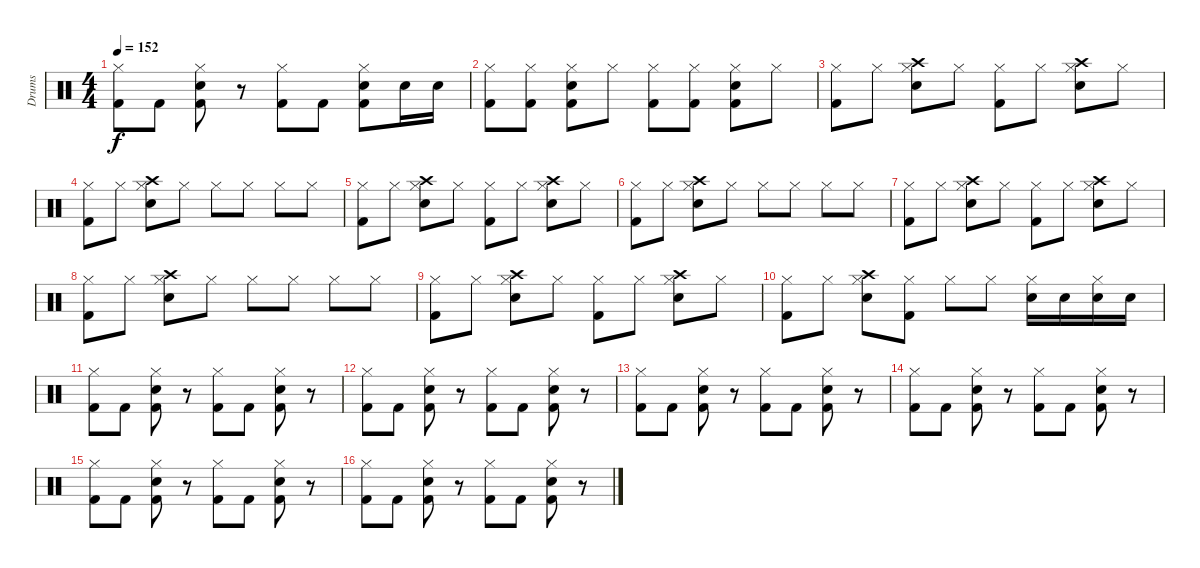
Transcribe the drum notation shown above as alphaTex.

\track ("Drums" "Drums") {instrument percussion}
\staff {score}
\articulation defaults
\ts (4 4)
\tempo 152
\clef neutral
\ks c
("Hi-Hat (closed)" "Kick (hit) 2").8{dy f} "Kick (hit) 2".8 ("Hi-Hat (closed)" "Electric Snare (hit)" "Kick (hit) 2").8 r.8 ("Hi-Hat (closed)" "Kick (hit) 2").8 "Kick (hit) 2".8 ("Hi-Hat (closed)" "Electric Snare (hit)" "Kick (hit) 2").8 "Snare (hit) 2".16 "Snare (hit) 2".16 |
("Hi-Hat (closed)" "Kick (hit) 2").8 ("Hi-Hat (closed)" "Kick (hit) 2").8 ("Hi-Hat (closed)" "Electric Snare (hit)" "Kick (hit) 2").8 "Hi-Hat (closed)".8 ("Hi-Hat (closed)" "Kick (hit) 2").8 ("Hi-Hat (closed)" "Kick (hit) 2").8 ("Hi-Hat (closed)" "Electric Snare (hit)" "Kick (hit) 2").8 "Hi-Hat (closed)".8 |
("Hi-Hat (closed)" "Kick (hit) 2").8 "Hi-Hat (closed)".8 ("Hi-Hat (closed)" "Crash high (hit)" "Snare (hit) 2").8 "Hi-Hat (closed)".8 ("Hi-Hat (closed)" "Kick (hit) 2").8 "Hi-Hat (closed)".8 ("Hi-Hat (closed)" "Crash high (hit)" "Snare (hit) 2").8 "Hi-Hat (closed)".8 |
("Hi-Hat (closed)" "Kick (hit) 2").8 "Hi-Hat (closed)".8 ("Hi-Hat (closed)" "Crash high (hit)" "Snare (hit) 2").8 "Hi-Hat (closed)".8 "Hi-Hat (closed)".8 "Hi-Hat (closed)".8 "Hi-Hat (closed)".8 "Hi-Hat (closed)".8 |
("Hi-Hat (closed)" "Kick (hit) 2").8 "Hi-Hat (closed)".8 ("Hi-Hat (closed)" "Crash high (hit)" "Snare (hit) 2").8 "Hi-Hat (closed)".8 ("Hi-Hat (closed)" "Kick (hit) 2").8 "Hi-Hat (closed)".8 ("Hi-Hat (closed)" "Crash high (hit)" "Snare (hit) 2").8 "Hi-Hat (closed)".8 |
("Hi-Hat (closed)" "Kick (hit) 2").8 "Hi-Hat (closed)".8 ("Hi-Hat (closed)" "Crash high (hit)" "Snare (hit) 2").8 "Hi-Hat (closed)".8 "Hi-Hat (closed)".8 "Hi-Hat (closed)".8 "Hi-Hat (closed)".8 "Hi-Hat (closed)".8 |
("Hi-Hat (closed)" "Kick (hit) 2").8 "Hi-Hat (closed)".8 ("Hi-Hat (closed)" "Crash high (hit)" "Snare (hit) 2").8 "Hi-Hat (closed)".8 ("Hi-Hat (closed)" "Kick (hit) 2").8 "Hi-Hat (closed)".8 ("Hi-Hat (closed)" "Crash high (hit)" "Snare (hit) 2").8 "Hi-Hat (closed)".8 |
("Hi-Hat (closed)" "Kick (hit) 2").8 "Hi-Hat (closed)".8 ("Hi-Hat (closed)" "Crash high (hit)" "Snare (hit) 2").8 "Hi-Hat (closed)".8 "Hi-Hat (closed)".8 "Hi-Hat (closed)".8 "Hi-Hat (closed)".8 "Hi-Hat (closed)".8 |
("Hi-Hat (closed)" "Kick (hit) 2").8 "Hi-Hat (closed)".8 ("Hi-Hat (closed)" "Crash high (hit)" "Snare (hit) 2").8 "Hi-Hat (closed)".8 ("Hi-Hat (closed)" "Kick (hit) 2").8 "Hi-Hat (closed)".8 ("Hi-Hat (closed)" "Crash high (hit)" "Snare (hit) 2").8 "Hi-Hat (closed)".8 |
("Hi-Hat (closed)" "Kick (hit) 2").8 "Hi-Hat (closed)".8 ("Hi-Hat (closed)" "Crash high (hit)" "Snare (hit) 2").8 ("Hi-Hat (closed)" "Kick (hit) 2").8 "Hi-Hat (closed)".8 "Hi-Hat (closed)".8 ("Hi-Hat (closed)" "Snare (hit) 2").16 "Snare (hit) 2".16 ("Hi-Hat (closed)" "Snare (hit) 2").16 "Snare (hit) 2".16 |
("Hi-Hat (closed)" "Kick (hit) 2").8 "Kick (hit) 2".8 ("Hi-Hat (closed)" "Electric Snare (hit)" "Kick (hit) 2").8 r.8 ("Hi-Hat (closed)" "Kick (hit) 2").8 "Kick (hit) 2".8 ("Hi-Hat (closed)" "Electric Snare (hit)" "Kick (hit) 2").8 r.8 |
("Hi-Hat (closed)" "Kick (hit) 2").8 "Kick (hit) 2".8 ("Hi-Hat (closed)" "Electric Snare (hit)" "Kick (hit) 2").8 r.8 ("Hi-Hat (closed)" "Kick (hit) 2").8 "Kick (hit) 2".8 ("Hi-Hat (closed)" "Electric Snare (hit)" "Kick (hit) 2").8 r.8 |
("Hi-Hat (closed)" "Kick (hit) 2").8 "Kick (hit) 2".8 ("Hi-Hat (closed)" "Electric Snare (hit)" "Kick (hit) 2").8 r.8 ("Hi-Hat (closed)" "Kick (hit) 2").8 "Kick (hit) 2".8 ("Hi-Hat (closed)" "Electric Snare (hit)" "Kick (hit) 2").8 r.8 |
("Hi-Hat (closed)" "Kick (hit) 2").8 "Kick (hit) 2".8 ("Hi-Hat (closed)" "Electric Snare (hit)" "Kick (hit) 2").8 r.8 ("Hi-Hat (closed)" "Kick (hit) 2").8 "Kick (hit) 2".8 ("Hi-Hat (closed)" "Electric Snare (hit)" "Kick (hit) 2").8 r.8 |
("Hi-Hat (closed)" "Kick (hit) 2").8 "Kick (hit) 2".8 ("Hi-Hat (closed)" "Electric Snare (hit)" "Kick (hit) 2").8 r.8 ("Hi-Hat (closed)" "Kick (hit) 2").8 "Kick (hit) 2".8 ("Hi-Hat (closed)" "Electric Snare (hit)" "Kick (hit) 2").8 r.8 |
("Hi-Hat (closed)" "Kick (hit) 2").8 "Kick (hit) 2".8 ("Hi-Hat (closed)" "Electric Snare (hit)" "Kick (hit) 2").8 r.8 ("Hi-Hat (closed)" "Kick (hit) 2").8 "Kick (hit) 2".8 ("Hi-Hat (closed)" "Electric Snare (hit)" "Kick (hit) 2").8 r.8
